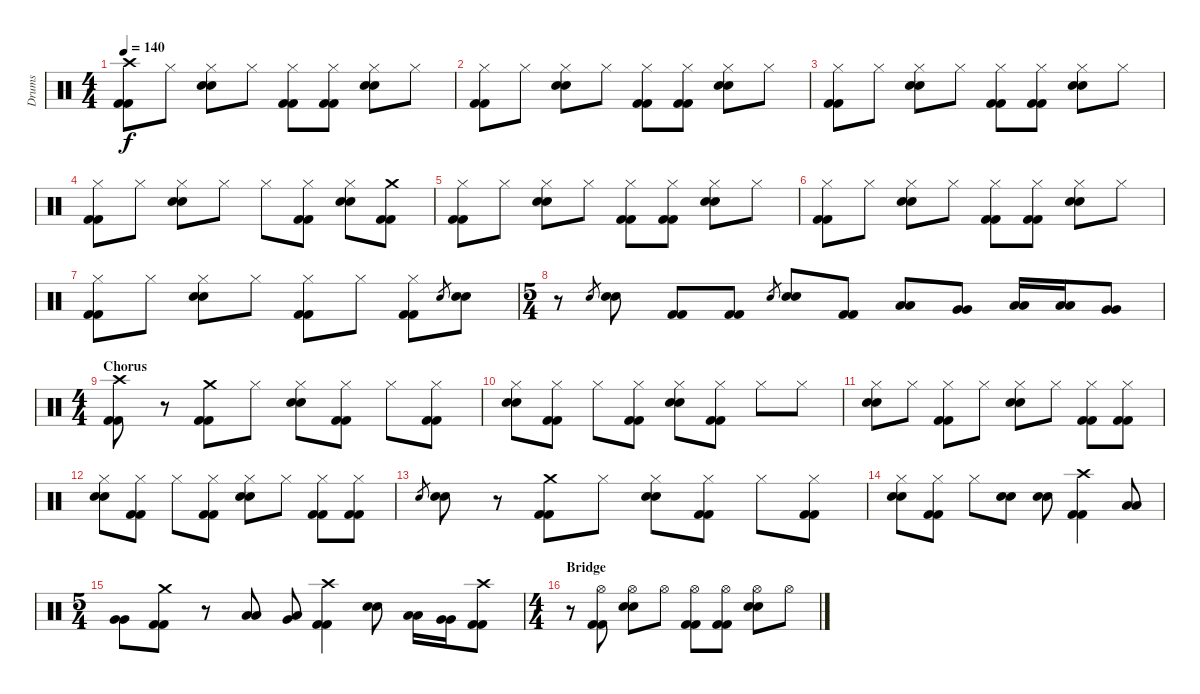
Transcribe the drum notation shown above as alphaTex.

\track ("Drums" "Drums") {instrument percussion}
\staff {score}
\articulation defaults
\ts (4 4)
\tempo 140
\clef neutral
\ks c
("Crash high (hit)" "Kick (hit) 2" "Kick (hit) 2").8{dy f} "Hi-Hat (closed)".8 ("Hi-Hat (closed)" "Snare (hit) 2" "Snare (hit) 2").8 "Hi-Hat (closed)".8 ("Hi-Hat (closed)" "Kick (hit) 2" "Kick (hit) 2").8 ("Hi-Hat (closed)" "Kick (hit) 2" "Kick (hit) 2").8 ("Hi-Hat (closed)" "Snare (hit) 2" "Snare (hit) 2").8 "Hi-Hat (closed)".8 |
("Hi-Hat (closed)" "Kick (hit) 2" "Kick (hit) 2").8 "Hi-Hat (closed)".8 ("Hi-Hat (closed)" "Snare (hit) 2" "Snare (hit) 2").8 "Hi-Hat (closed)".8 ("Hi-Hat (closed)" "Kick (hit) 2" "Kick (hit) 2").8 ("Hi-Hat (closed)" "Kick (hit) 2" "Kick (hit) 2").8 ("Hi-Hat (closed)" "Snare (hit) 2" "Snare (hit) 2").8 "Hi-Hat (closed)".8 |
("Hi-Hat (closed)" "Kick (hit) 2" "Kick (hit) 2").8 "Hi-Hat (closed)".8 ("Hi-Hat (closed)" "Snare (hit) 2" "Snare (hit) 2").8 "Hi-Hat (closed)".8 ("Hi-Hat (closed)" "Kick (hit) 2" "Kick (hit) 2").8 ("Hi-Hat (closed)" "Kick (hit) 2" "Kick (hit) 2").8 ("Hi-Hat (closed)" "Snare (hit) 2" "Snare (hit) 2").8 "Hi-Hat (closed)".8 |
("Hi-Hat (closed)" "Kick (hit) 2" "Kick (hit) 2").8 "Hi-Hat (closed)".8 ("Hi-Hat (closed)" "Snare (hit) 2" "Snare (hit) 2").8 "Hi-Hat (closed)".8 "Hi-Hat (closed)".8 ("Hi-Hat (closed)" "Kick (hit) 2" "Kick (hit) 2").8 ("Hi-Hat (closed)" "Snare (hit) 2" "Snare (hit) 2").8 ("Crash medium (hit)" "Kick (hit) 2" "Kick (hit) 2").8 |
("Hi-Hat (closed)" "Kick (hit) 2" "Kick (hit) 2").8 "Hi-Hat (closed)".8 ("Hi-Hat (closed)" "Snare (hit) 2" "Snare (hit) 2").8 "Hi-Hat (closed)".8 ("Hi-Hat (closed)" "Kick (hit) 2" "Kick (hit) 2").8 ("Hi-Hat (closed)" "Kick (hit) 2" "Kick (hit) 2").8 ("Hi-Hat (closed)" "Snare (hit) 2" "Snare (hit) 2").8 "Hi-Hat (closed)".8 |
("Hi-Hat (closed)" "Kick (hit) 2" "Kick (hit) 2").8 "Hi-Hat (closed)".8 ("Hi-Hat (closed)" "Snare (hit) 2" "Snare (hit) 2").8 "Hi-Hat (closed)".8 ("Hi-Hat (closed)" "Kick (hit) 2" "Kick (hit) 2").8 ("Hi-Hat (closed)" "Kick (hit) 2" "Kick (hit) 2").8 ("Hi-Hat (closed)" "Snare (hit) 2" "Snare (hit) 2").8 "Hi-Hat (closed)".8 |
("Hi-Hat (closed)" "Kick (hit) 2" "Kick (hit) 2").8 "Hi-Hat (closed)".8 ("Hi-Hat (closed)" "Snare (hit) 2" "Snare (hit) 2").8 "Hi-Hat (closed)".8 ("Hi-Hat (closed)" "Kick (hit) 2" "Kick (hit) 2").8 "Hi-Hat (closed)".8 ("Hi-Hat (closed)" "Kick (hit) 2" "Kick (hit) 2").8 "Snare (hit) 2".8{gr} ("Snare (hit) 2" "Snare (hit) 2").8 |
\ts (5 4)
r.8 "Snare (hit) 2".8{gr} ("Snare (hit) 2" "Snare (hit) 2").8 ("Kick (hit) 2" "Kick (hit) 2").8 ("Kick (hit) 2" "Kick (hit) 2").8 "Snare (hit) 2".8{gr} ("Snare (hit) 2" "Snare (hit) 2").8 ("Kick (hit) 2" "Kick (hit) 2").8 ("Low Tom (hit)" "Low Tom (hit)").8 ("Very Low Tom (hit)" "Very Low Tom (hit)").8 ("Low Tom (hit)" "Low Tom (hit)").16 ("Low Tom (hit)" "Low Tom (hit)").16 ("Very Low Tom (hit)" "Very Low Tom (hit)").8 |
\ts (4 4)
\section ("" "Chorus")
("Crash high (hit)" "Kick (hit) 2" "Kick (hit) 2").8 r.8 ("Crash medium (hit)" "Kick (hit) 2" "Kick (hit) 2").8 "Hi-Hat (closed)".8 ("Hi-Hat (closed)" "Snare (hit) 2" "Snare (hit) 2").8 ("Hi-Hat (closed)" "Kick (hit) 2" "Kick (hit) 2").8 "Hi-Hat (closed)".8 ("Hi-Hat (closed)" "Kick (hit) 2" "Kick (hit) 2").8 |
("Hi-Hat (closed)" "Snare (hit) 2" "Snare (hit) 2").8 ("Hi-Hat (closed)" "Kick (hit) 2" "Kick (hit) 2").8 "Hi-Hat (closed)".8 ("Hi-Hat (closed)" "Kick (hit) 2" "Kick (hit) 2").8 ("Hi-Hat (closed)" "Snare (hit) 2" "Snare (hit) 2").8 ("Hi-Hat (closed)" "Kick (hit) 2" "Kick (hit) 2").8 "Hi-Hat (closed)".8 "Hi-Hat (closed)".8 |
("Hi-Hat (closed)" "Snare (hit) 2" "Snare (hit) 2").8 "Hi-Hat (closed)".8 ("Hi-Hat (closed)" "Kick (hit) 2" "Kick (hit) 2").8 "Hi-Hat (closed)".8 ("Hi-Hat (closed)" "Snare (hit) 2" "Snare (hit) 2").8 "Hi-Hat (closed)".8 ("Hi-Hat (closed)" "Kick (hit) 2" "Kick (hit) 2").8 ("Hi-Hat (closed)" "Kick (hit) 2" "Kick (hit) 2").8 |
("Hi-Hat (closed)" "Snare (hit) 2" "Snare (hit) 2").8 ("Hi-Hat (closed)" "Kick (hit) 2" "Kick (hit) 2").8 "Hi-Hat (closed)".8 ("Hi-Hat (closed)" "Kick (hit) 2" "Kick (hit) 2").8 ("Hi-Hat (closed)" "Snare (hit) 2" "Snare (hit) 2").8 "Hi-Hat (closed)".8 ("Hi-Hat (closed)" "Kick (hit) 2" "Kick (hit) 2").8 ("Hi-Hat (closed)" "Kick (hit) 2" "Kick (hit) 2").8 |
"Snare (hit) 2".8{gr} ("Snare (hit) 2" "Snare (hit) 2").8 r.8 ("Crash medium (hit)" "Kick (hit) 2" "Kick (hit) 2").8 "Hi-Hat (closed)".8 ("Hi-Hat (closed)" "Snare (hit) 2" "Snare (hit) 2").8 ("Hi-Hat (closed)" "Kick (hit) 2" "Kick (hit) 2").8 "Hi-Hat (closed)".8 ("Hi-Hat (closed)" "Kick (hit) 2" "Kick (hit) 2").8 |
("Hi-Hat (closed)" "Snare (hit) 2" "Snare (hit) 2").8 ("Hi-Hat (closed)" "Kick (hit) 2" "Kick (hit) 2").8 "Hi-Hat (closed)".8 ("Snare (hit) 2" "Snare (hit) 2").8 ("Snare (hit) 2" "Snare (hit) 2").8 ("Crash high (hit)" "Kick (hit) 2" "Kick (hit) 2").4 ("Low Tom (hit)" "Low Tom (hit)").8 |
\ts (5 4)
("Very Low Tom (hit)" "Very Low Tom (hit)").8 ("Crash medium (hit)" "Kick (hit) 2" "Kick (hit) 2").8 r.8 ("Low Tom (hit)" "Low Tom (hit)").8 ("Very Low Tom (hit)" "Low Tom (hit)").8 ("Crash high (hit)" "Kick (hit) 2" "Kick (hit) 2").4 ("Snare (hit) 2" "Snare (hit) 2").8 ("Low Tom (hit)" "Low Tom (hit)").16 ("Very Low Tom (hit)" "Very Low Tom (hit)").16 ("Crash high (hit)" "Kick (hit) 2" "Kick (hit) 2").8 |
\ts (4 4)
\section ("" "Bridge")
r.8 ("Hi-Hat (open)" "Kick (hit) 2" "Kick (hit) 2").8 ("Hi-Hat (open)" "Snare (hit) 2" "Snare (hit) 2").8 "Hi-Hat (open)".8 ("Hi-Hat (open)" "Kick (hit) 2" "Kick (hit) 2").8 ("Hi-Hat (open)" "Kick (hit) 2" "Kick (hit) 2").8 ("Hi-Hat (open)" "Snare (hit) 2" "Snare (hit) 2").8 "Hi-Hat (open)".8
